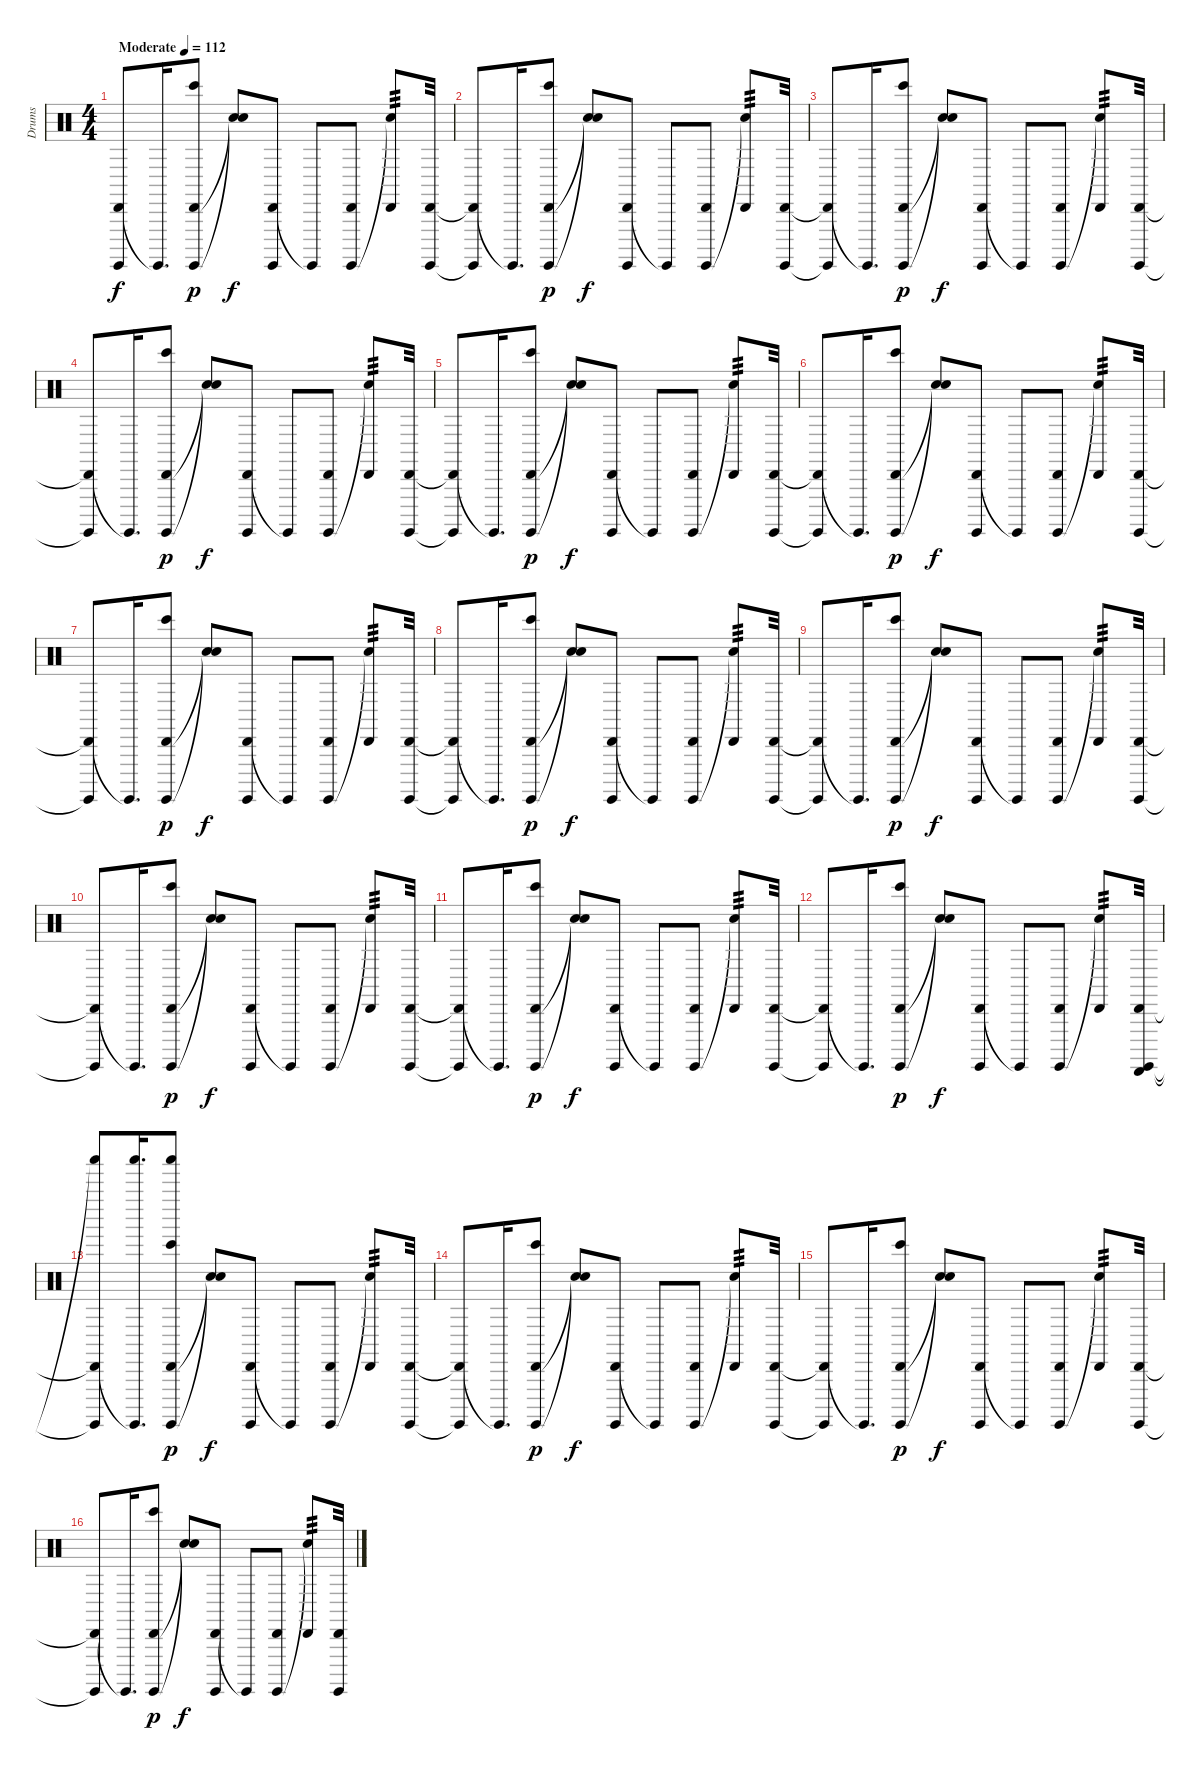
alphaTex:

\track ("Drums" "Drums") {instrument percussion}
\staff {score}
\articulation defaults
\ts (4 4)
\tempo (112 "Moderate")
\clef neutral
\ks c
("Cabasa (hit)" "Surdo (hit)").8{dy f} "Surdo (hit)"{t}.16{d} ("Cabasa (hit)" "Surdo (hit)" "Bongo High (hit)").8{dy p} ("Snare (hit)"{t} "Snare (hit)"{t}).8{dy f} ("Cabasa (hit)" "Surdo (hit)").8 "Surdo (hit)"{t}.8 ("Cabasa (hit)" "Surdo (hit)").8 ("Cabasa (hit)" "Snare (hit)"{t}).8{tp 3} ("Cabasa (hit)" "Surdo (hit)").32 |
("Cabasa (hit)"{t} "Surdo (hit)"{t}).8 "Surdo (hit)"{t}.16{d} ("Cabasa (hit)" "Surdo (hit)" "Bongo High (hit)").8{dy p} ("Snare (hit)"{t} "Snare (hit)"{t}).8{dy f} ("Cabasa (hit)" "Surdo (hit)").8 "Surdo (hit)"{t}.8 ("Cabasa (hit)" "Surdo (hit)").8 ("Cabasa (hit)" "Snare (hit)"{t}).8{tp 3} ("Cabasa (hit)" "Surdo (hit)").32 |
("Cabasa (hit)"{t} "Surdo (hit)"{t}).8 "Surdo (hit)"{t}.16{d} ("Cabasa (hit)" "Surdo (hit)" "Bongo High (hit)").8{dy p} ("Snare (hit)"{t} "Snare (hit)"{t}).8{dy f} ("Cabasa (hit)" "Surdo (hit)").8 "Surdo (hit)"{t}.8 ("Cabasa (hit)" "Surdo (hit)").8 ("Cabasa (hit)" "Snare (hit)"{t}).8{tp 3} ("Cabasa (hit)" "Surdo (hit)").32 |
("Cabasa (hit)"{t} "Surdo (hit)"{t}).8 "Surdo (hit)"{t}.16{d} ("Cabasa (hit)" "Surdo (hit)" "Bongo High (hit)").8{dy p} ("Snare (hit)"{t} "Snare (hit)"{t}).8{dy f} ("Cabasa (hit)" "Surdo (hit)").8 "Surdo (hit)"{t}.8 ("Cabasa (hit)" "Surdo (hit)").8 ("Cabasa (hit)" "Snare (hit)"{t}).8{tp 3} ("Cabasa (hit)" "Surdo (hit)").32 |
("Cabasa (hit)"{t} "Surdo (hit)"{t}).8 "Surdo (hit)"{t}.16{d} ("Cabasa (hit)" "Surdo (hit)" "Bongo High (hit)").8{dy p} ("Snare (hit)"{t} "Snare (hit)"{t}).8{dy f} ("Cabasa (hit)" "Surdo (hit)").8 "Surdo (hit)"{t}.8 ("Cabasa (hit)" "Surdo (hit)").8 ("Cabasa (hit)" "Snare (hit)"{t}).8{tp 3} ("Cabasa (hit)" "Surdo (hit)").32 |
("Cabasa (hit)"{t} "Surdo (hit)"{t}).8 "Surdo (hit)"{t}.16{d} ("Cabasa (hit)" "Surdo (hit)" "Bongo High (hit)").8{dy p} ("Snare (hit)"{t} "Snare (hit)"{t}).8{dy f} ("Cabasa (hit)" "Surdo (hit)").8 "Surdo (hit)"{t}.8 ("Cabasa (hit)" "Surdo (hit)").8 ("Cabasa (hit)" "Snare (hit)"{t}).8{tp 3} ("Cabasa (hit)" "Surdo (hit)").32 |
("Cabasa (hit)"{t} "Surdo (hit)"{t}).8 "Surdo (hit)"{t}.16{d} ("Cabasa (hit)" "Surdo (hit)" "Bongo High (hit)").8{dy p} ("Snare (hit)"{t} "Snare (hit)"{t}).8{dy f} ("Cabasa (hit)" "Surdo (hit)").8 "Surdo (hit)"{t}.8 ("Cabasa (hit)" "Surdo (hit)").8 ("Cabasa (hit)" "Snare (hit)"{t}).8{tp 3} ("Cabasa (hit)" "Surdo (hit)").32 |
("Cabasa (hit)"{t} "Surdo (hit)"{t}).8 "Surdo (hit)"{t}.16{d} ("Cabasa (hit)" "Surdo (hit)" "Bongo High (hit)").8{dy p} ("Snare (hit)"{t} "Snare (hit)"{t}).8{dy f} ("Cabasa (hit)" "Surdo (hit)").8 "Surdo (hit)"{t}.8 ("Cabasa (hit)" "Surdo (hit)").8 ("Cabasa (hit)" "Snare (hit)"{t}).8{tp 3} ("Cabasa (hit)" "Surdo (hit)").32 |
("Cabasa (hit)"{t} "Surdo (hit)"{t}).8 "Surdo (hit)"{t}.16{d} ("Cabasa (hit)" "Surdo (hit)" "Bongo High (hit)").8{dy p} ("Snare (hit)"{t} "Snare (hit)"{t}).8{dy f} ("Cabasa (hit)" "Surdo (hit)").8 "Surdo (hit)"{t}.8 ("Cabasa (hit)" "Surdo (hit)").8 ("Cabasa (hit)" "Snare (hit)"{t}).8{tp 3} ("Cabasa (hit)" "Surdo (hit)").32 |
("Cabasa (hit)"{t} "Surdo (hit)"{t}).8 "Surdo (hit)"{t}.16{d} ("Cabasa (hit)" "Surdo (hit)" "Bongo High (hit)").8{dy p} ("Snare (hit)"{t} "Snare (hit)"{t}).8{dy f} ("Cabasa (hit)" "Surdo (hit)").8 "Surdo (hit)"{t}.8 ("Cabasa (hit)" "Surdo (hit)").8 ("Cabasa (hit)" "Snare (hit)"{t}).8{tp 3} ("Cabasa (hit)" "Surdo (hit)").32 |
("Cabasa (hit)"{t} "Surdo (hit)"{t}).8 "Surdo (hit)"{t}.16{d} ("Cabasa (hit)" "Surdo (hit)" "Bongo High (hit)").8{dy p} ("Snare (hit)"{t} "Snare (hit)"{t}).8{dy f} ("Cabasa (hit)" "Surdo (hit)").8 "Surdo (hit)"{t}.8 ("Cabasa (hit)" "Surdo (hit)").8 ("Cabasa (hit)" "Snare (hit)"{t}).8{tp 3} ("Cabasa (hit)" "Surdo (hit)").32 |
("Cabasa (hit)"{t} "Surdo (hit)"{t}).8 "Surdo (hit)"{t}.16{d} ("Cabasa (hit)" "Surdo (hit)" "Bongo High (hit)").8{dy p} ("Snare (hit)"{t} "Snare (hit)"{t}).8{dy f} ("Cabasa (hit)" "Surdo (hit)").8 "Surdo (hit)"{t}.8 ("Cabasa (hit)" "Surdo (hit)").8 ("Cabasa (hit)" "Snare (hit)"{t}).8{tp 3} ("Cabasa (hit)" "Surdo (hit)" "Guiro (scrap-return)").32 |
("Cabasa (hit)"{t} "Surdo (hit)"{t} "Shaker (hit)"{t}).8 ("Surdo (hit)"{t} "Shaker (hit)").16{d} ("Cabasa (hit)" "Surdo (hit)" "Bongo High (hit)" "Shaker (hit)").8{dy p} ("Snare (hit)"{t} "Snare (hit)"{t}).8{dy f} ("Cabasa (hit)" "Surdo (hit)").8 "Surdo (hit)"{t}.8 ("Cabasa (hit)" "Surdo (hit)").8 ("Cabasa (hit)" "Snare (hit)"{t}).8{tp 3} ("Cabasa (hit)" "Surdo (hit)").32 |
("Cabasa (hit)"{t} "Surdo (hit)"{t}).8 "Surdo (hit)"{t}.16{d} ("Cabasa (hit)" "Surdo (hit)" "Bongo High (hit)").8{dy p} ("Snare (hit)"{t} "Snare (hit)"{t}).8{dy f} ("Cabasa (hit)" "Surdo (hit)").8 "Surdo (hit)"{t}.8 ("Cabasa (hit)" "Surdo (hit)").8 ("Cabasa (hit)" "Snare (hit)"{t}).8{tp 3} ("Cabasa (hit)" "Surdo (hit)").32 |
("Cabasa (hit)"{t} "Surdo (hit)"{t}).8 "Surdo (hit)"{t}.16{d} ("Cabasa (hit)" "Surdo (hit)" "Bongo High (hit)").8{dy p} ("Snare (hit)"{t} "Snare (hit)"{t}).8{dy f} ("Cabasa (hit)" "Surdo (hit)").8 "Surdo (hit)"{t}.8 ("Cabasa (hit)" "Surdo (hit)").8 ("Cabasa (hit)" "Snare (hit)"{t}).8{tp 3} ("Cabasa (hit)" "Surdo (hit)").32 |
("Cabasa (hit)"{t} "Surdo (hit)"{t}).8 "Surdo (hit)"{t}.16{d} ("Cabasa (hit)" "Surdo (hit)" "Bongo High (hit)").8{dy p} ("Snare (hit)"{t} "Snare (hit)"{t}).8{dy f} ("Cabasa (hit)" "Surdo (hit)").8 "Surdo (hit)"{t}.8 ("Cabasa (hit)" "Surdo (hit)").8 ("Cabasa (hit)" "Snare (hit)"{t}).8{tp 3} ("Cabasa (hit)" "Surdo (hit)").32
